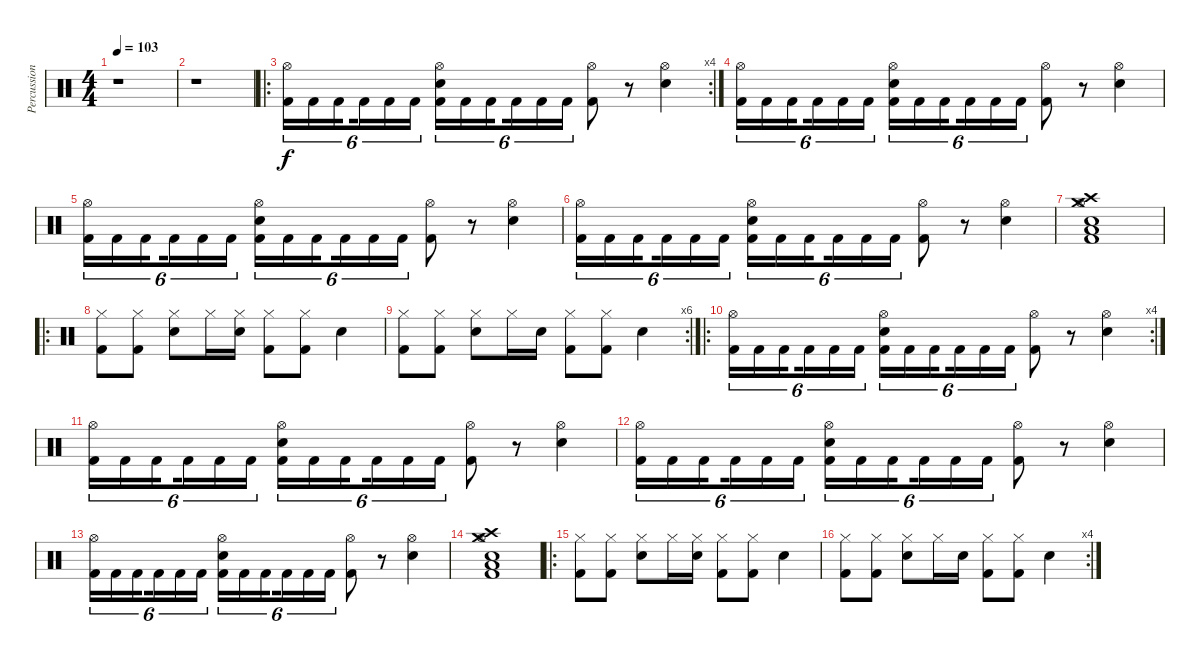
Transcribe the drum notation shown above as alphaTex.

\track ("Percussions" "Percussion") {instrument percussion}
\staff {score}
\articulation defaults
\ts (4 4)
\tempo 103
\clef neutral
\ks c
r.1{dy f} |
r.1 |
\ro
\rc 4
("Hi-Hat (open)" "Kick (hit) 2").16{tu (6 4)} "Kick (hit) 2".16{tu (6 4)} "Kick (hit) 2".16{tu (6 4) beam splitsecondary} "Kick (hit) 2".16{tu (6 4)} "Kick (hit) 2".16{tu (6 4)} "Kick (hit) 2".16{tu (6 4)} ("Electric Snare (hit)" "Hi-Hat (open)" "Kick (hit) 2").16{tu (6 4)} "Kick (hit) 2".16{tu (6 4)} "Kick (hit) 2".16{tu (6 4) beam splitsecondary} "Kick (hit) 2".16{tu (6 4)} "Kick (hit) 2".16{tu (6 4)} "Kick (hit) 2".16{tu (6 4)} ("Hi-Hat (open)" "Kick (hit) 2").8 r.8 ("Hi-Hat (open)" "Electric Snare (hit)").4 |
("Hi-Hat (open)" "Kick (hit) 2").16{tu (6 4)} "Kick (hit) 2".16{tu (6 4)} "Kick (hit) 2".16{tu (6 4) beam splitsecondary} "Kick (hit) 2".16{tu (6 4)} "Kick (hit) 2".16{tu (6 4)} "Kick (hit) 2".16{tu (6 4)} ("Electric Snare (hit)" "Hi-Hat (open)" "Kick (hit) 2").16{tu (6 4)} "Kick (hit) 2".16{tu (6 4)} "Kick (hit) 2".16{tu (6 4) beam splitsecondary} "Kick (hit) 2".16{tu (6 4)} "Kick (hit) 2".16{tu (6 4)} "Kick (hit) 2".16{tu (6 4)} ("Hi-Hat (open)" "Kick (hit) 2").8 r.8 ("Hi-Hat (open)" "Electric Snare (hit)").4 |
("Hi-Hat (open)" "Kick (hit) 2").16{tu (6 4)} "Kick (hit) 2".16{tu (6 4)} "Kick (hit) 2".16{tu (6 4) beam splitsecondary} "Kick (hit) 2".16{tu (6 4)} "Kick (hit) 2".16{tu (6 4)} "Kick (hit) 2".16{tu (6 4)} ("Electric Snare (hit)" "Hi-Hat (open)" "Kick (hit) 2").16{tu (6 4)} "Kick (hit) 2".16{tu (6 4)} "Kick (hit) 2".16{tu (6 4) beam splitsecondary} "Kick (hit) 2".16{tu (6 4)} "Kick (hit) 2".16{tu (6 4)} "Kick (hit) 2".16{tu (6 4)} ("Hi-Hat (open)" "Kick (hit) 2").8 r.8 ("Hi-Hat (open)" "Electric Snare (hit)").4 |
("Hi-Hat (open)" "Kick (hit) 2").16{tu (6 4)} "Kick (hit) 2".16{tu (6 4)} "Kick (hit) 2".16{tu (6 4) beam splitsecondary} "Kick (hit) 2".16{tu (6 4)} "Kick (hit) 2".16{tu (6 4)} "Kick (hit) 2".16{tu (6 4)} ("Electric Snare (hit)" "Hi-Hat (open)" "Kick (hit) 2").16{tu (6 4)} "Kick (hit) 2".16{tu (6 4)} "Kick (hit) 2".16{tu (6 4) beam splitsecondary} "Kick (hit) 2".16{tu (6 4)} "Kick (hit) 2".16{tu (6 4)} "Kick (hit) 2".16{tu (6 4)} ("Hi-Hat (open)" "Kick (hit) 2").8 r.8 ("Hi-Hat (open)" "Electric Snare (hit)").4 |
("Low Floor Tom (hit)" "Crash medium (hit)" "Crash high (hit)" "Hi-Hat (open)" "Electric Snare (hit)" "Kick (hit) 2").1 |
\ro
("Hi-Hat (closed)" "Kick (hit) 2").8 ("Hi-Hat (closed)" "Kick (hit) 2").8 ("Hi-Hat (closed)" "Electric Snare (hit)").8 "Hi-Hat (closed)".16 ("Hi-Hat (closed)" "Electric Snare (hit)").16 ("Hi-Hat (closed)" "Kick (hit) 2").8 ("Hi-Hat (closed)" "Kick (hit) 2").8 "Electric Snare (hit)".4 |
\rc 6
("Hi-Hat (closed)" "Kick (hit) 2").8 ("Hi-Hat (closed)" "Kick (hit) 2").8 ("Hi-Hat (closed)" "Electric Snare (hit)").8 "Hi-Hat (closed)".16 "Electric Snare (hit)".16 ("Hi-Hat (closed)" "Kick (hit) 2").8 ("Hi-Hat (closed)" "Kick (hit) 2").8 "Electric Snare (hit)".4 |
\ro
\rc 4
("Hi-Hat (open)" "Kick (hit) 2").16{tu (6 4)} "Kick (hit) 2".16{tu (6 4)} "Kick (hit) 2".16{tu (6 4) beam splitsecondary} "Kick (hit) 2".16{tu (6 4)} "Kick (hit) 2".16{tu (6 4)} "Kick (hit) 2".16{tu (6 4)} ("Electric Snare (hit)" "Hi-Hat (open)" "Kick (hit) 2").16{tu (6 4)} "Kick (hit) 2".16{tu (6 4)} "Kick (hit) 2".16{tu (6 4) beam splitsecondary} "Kick (hit) 2".16{tu (6 4)} "Kick (hit) 2".16{tu (6 4)} "Kick (hit) 2".16{tu (6 4)} ("Hi-Hat (open)" "Kick (hit) 2").8 r.8 ("Hi-Hat (open)" "Electric Snare (hit)").4 |
("Hi-Hat (open)" "Kick (hit) 2").16{tu (6 4)} "Kick (hit) 2".16{tu (6 4)} "Kick (hit) 2".16{tu (6 4) beam splitsecondary} "Kick (hit) 2".16{tu (6 4)} "Kick (hit) 2".16{tu (6 4)} "Kick (hit) 2".16{tu (6 4)} ("Electric Snare (hit)" "Hi-Hat (open)" "Kick (hit) 2").16{tu (6 4)} "Kick (hit) 2".16{tu (6 4)} "Kick (hit) 2".16{tu (6 4) beam splitsecondary} "Kick (hit) 2".16{tu (6 4)} "Kick (hit) 2".16{tu (6 4)} "Kick (hit) 2".16{tu (6 4)} ("Hi-Hat (open)" "Kick (hit) 2").8 r.8 ("Hi-Hat (open)" "Electric Snare (hit)").4 |
("Hi-Hat (open)" "Kick (hit) 2").16{tu (6 4)} "Kick (hit) 2".16{tu (6 4)} "Kick (hit) 2".16{tu (6 4) beam splitsecondary} "Kick (hit) 2".16{tu (6 4)} "Kick (hit) 2".16{tu (6 4)} "Kick (hit) 2".16{tu (6 4)} ("Electric Snare (hit)" "Hi-Hat (open)" "Kick (hit) 2").16{tu (6 4)} "Kick (hit) 2".16{tu (6 4)} "Kick (hit) 2".16{tu (6 4) beam splitsecondary} "Kick (hit) 2".16{tu (6 4)} "Kick (hit) 2".16{tu (6 4)} "Kick (hit) 2".16{tu (6 4)} ("Hi-Hat (open)" "Kick (hit) 2").8 r.8 ("Hi-Hat (open)" "Electric Snare (hit)").4 |
("Hi-Hat (open)" "Kick (hit) 2").16{tu (6 4)} "Kick (hit) 2".16{tu (6 4)} "Kick (hit) 2".16{tu (6 4) beam splitsecondary} "Kick (hit) 2".16{tu (6 4)} "Kick (hit) 2".16{tu (6 4)} "Kick (hit) 2".16{tu (6 4)} ("Electric Snare (hit)" "Hi-Hat (open)" "Kick (hit) 2").16{tu (6 4)} "Kick (hit) 2".16{tu (6 4)} "Kick (hit) 2".16{tu (6 4) beam splitsecondary} "Kick (hit) 2".16{tu (6 4)} "Kick (hit) 2".16{tu (6 4)} "Kick (hit) 2".16{tu (6 4)} ("Hi-Hat (open)" "Kick (hit) 2").8 r.8 ("Hi-Hat (open)" "Electric Snare (hit)").4 |
("Low Floor Tom (hit)" "Crash medium (hit)" "Crash high (hit)" "Hi-Hat (open)" "Electric Snare (hit)" "Kick (hit) 2").1 |
\ro
("Hi-Hat (closed)" "Kick (hit) 2").8 ("Hi-Hat (closed)" "Kick (hit) 2").8 ("Hi-Hat (closed)" "Electric Snare (hit)").8 "Hi-Hat (closed)".16 ("Hi-Hat (closed)" "Electric Snare (hit)").16 ("Hi-Hat (closed)" "Kick (hit) 2").8 ("Hi-Hat (closed)" "Kick (hit) 2").8 "Electric Snare (hit)".4 |
\rc 4
("Hi-Hat (closed)" "Kick (hit) 2").8 ("Hi-Hat (closed)" "Kick (hit) 2").8 ("Hi-Hat (closed)" "Electric Snare (hit)").8 "Hi-Hat (closed)".16 "Electric Snare (hit)".16 ("Hi-Hat (closed)" "Kick (hit) 2").8 ("Hi-Hat (closed)" "Kick (hit) 2").8 "Electric Snare (hit)".4
